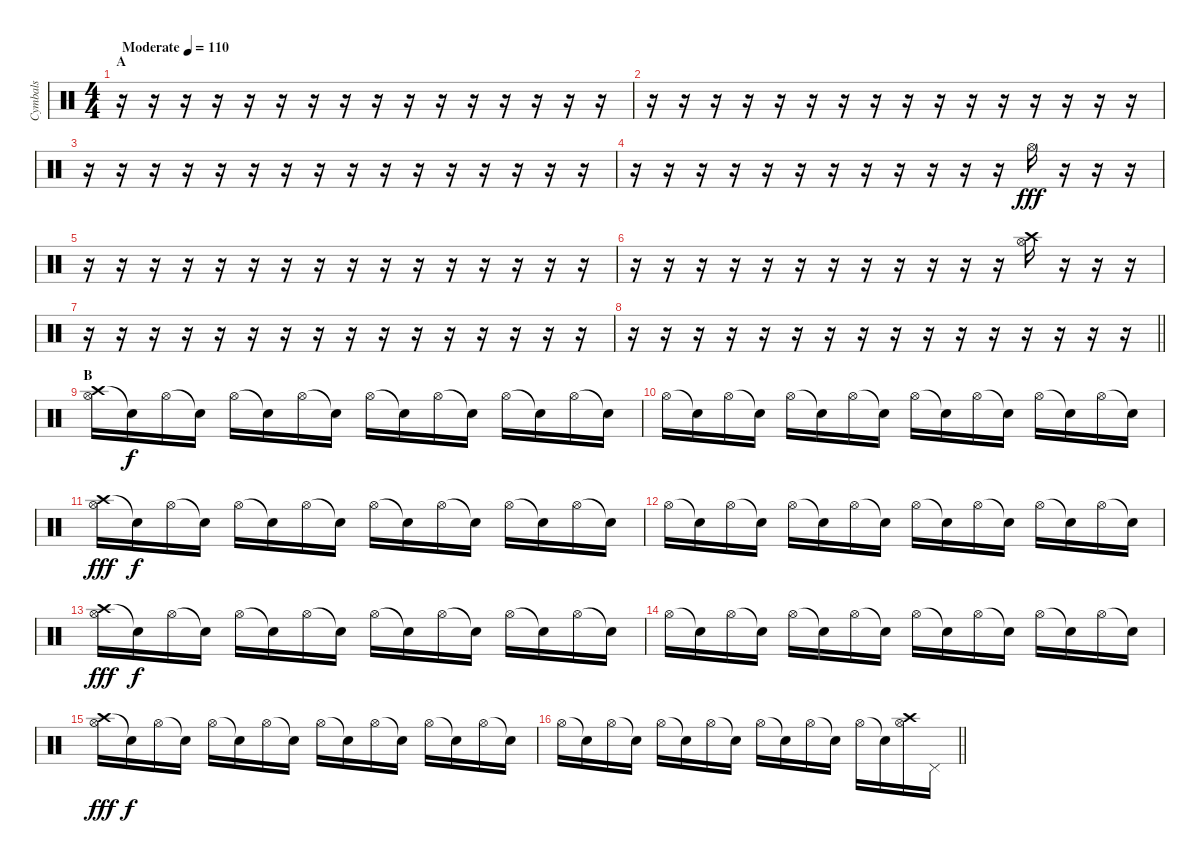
\track ("Cymbals" "Cymbals") {instrument percussion}
\staff {score}
\articulation defaults
\ts (4 4)
\section ("" "A")
\tempo (110 "Moderate")
\clef neutral
\ks c
r.16{dy fff} r.16 r.16 r.16 r.16 r.16 r.16 r.16 r.16 r.16 r.16 r.16 r.16 r.16 r.16 r.16 |
r.16 r.16 r.16 r.16 r.16 r.16 r.16 r.16 r.16 r.16 r.16 r.16 r.16 r.16 r.16 r.16 |
r.16 r.16 r.16 r.16 r.16 r.16 r.16 r.16 r.16 r.16 r.16 r.16 r.16 r.16 r.16 r.16 |
r.16 r.16 r.16 r.16 r.16 r.16 r.16 r.16 r.16 r.16 r.16 r.16 "Hi-Hat (open)".16 r.16 r.16 r.16 |
r.16 r.16 r.16 r.16 r.16 r.16 r.16 r.16 r.16 r.16 r.16 r.16 r.16 r.16 r.16 r.16 |
r.16 r.16 r.16 r.16 r.16 r.16 r.16 r.16 r.16 r.16 r.16 r.16 ("Crash high (hit)" "Hi-Hat (open)").16 r.16 r.16 r.16 |
r.16 r.16 r.16 r.16 r.16 r.16 r.16 r.16 r.16 r.16 r.16 r.16 r.16 r.16 r.16 r.16 |
\barLineRight lightlight
r.16 r.16 r.16 r.16 r.16 r.16 r.16 r.16 r.16 r.16 r.16 r.16 r.16 r.16 r.16 r.16 |
\section ("" "B")
("Crash high (hit)" "Hi-Hat (open)").16 "Snare (hit)"{t}.16{dy f} "Hi-Hat (open)".16 "Snare (hit)"{t}.16 "Hi-Hat (open)".16 "Snare (hit)"{t}.16 "Hi-Hat (open)".16 "Snare (hit)"{t}.16 "Hi-Hat (open)".16 "Snare (hit)"{t}.16 "Hi-Hat (open)".16 "Snare (hit)"{t}.16 "Hi-Hat (open)".16 "Snare (hit)"{t}.16 "Hi-Hat (open)".16 "Snare (hit)"{t}.16 |
"Hi-Hat (open)".16 "Snare (hit)"{t}.16 "Hi-Hat (open)".16 "Snare (hit)"{t}.16 "Hi-Hat (open)".16 "Snare (hit)"{t}.16 "Hi-Hat (open)".16 "Snare (hit)"{t}.16 "Hi-Hat (open)".16 "Snare (hit)"{t}.16 "Hi-Hat (open)".16 "Snare (hit)"{t}.16 "Hi-Hat (open)".16 "Snare (hit)"{t}.16 "Hi-Hat (open)".16 "Snare (hit)"{t}.16 |
("Crash high (hit)" "Hi-Hat (open)").16{dy fff} "Snare (hit)"{t}.16{dy f} "Hi-Hat (open)".16 "Snare (hit)"{t}.16 "Hi-Hat (open)".16 "Snare (hit)"{t}.16 "Hi-Hat (open)".16 "Snare (hit)"{t}.16 "Hi-Hat (open)".16 "Snare (hit)"{t}.16 "Hi-Hat (open)".16 "Snare (hit)"{t}.16 "Hi-Hat (open)".16 "Snare (hit)"{t}.16 "Hi-Hat (open)".16 "Snare (hit)"{t}.16 |
"Hi-Hat (open)".16 "Snare (hit)"{t}.16 "Hi-Hat (open)".16 "Snare (hit)"{t}.16 "Hi-Hat (open)".16 "Snare (hit)"{t}.16 "Hi-Hat (open)".16 "Snare (hit)"{t}.16 "Hi-Hat (open)".16 "Snare (hit)"{t}.16 "Hi-Hat (open)".16 "Snare (hit)"{t}.16 "Hi-Hat (open)".16 "Snare (hit)"{t}.16 "Hi-Hat (open)".16 "Snare (hit)"{t}.16 |
("Crash high (hit)" "Hi-Hat (open)").16{dy fff} "Snare (hit)"{t}.16{dy f} "Hi-Hat (open)".16 "Snare (hit)"{t}.16 "Hi-Hat (open)".16 "Snare (hit)"{t}.16 "Hi-Hat (open)".16 "Snare (hit)"{t}.16 "Hi-Hat (open)".16 "Snare (hit)"{t}.16 "Hi-Hat (open)".16 "Snare (hit)"{t}.16 "Hi-Hat (open)".16 "Snare (hit)"{t}.16 "Hi-Hat (open)".16 "Snare (hit)"{t}.16 |
"Hi-Hat (open)".16 "Snare (hit)"{t}.16 "Hi-Hat (open)".16 "Snare (hit)"{t}.16 "Hi-Hat (open)".16 "Snare (hit)"{t}.16 "Hi-Hat (open)".16 "Snare (hit)"{t}.16 "Hi-Hat (open)".16 "Snare (hit)"{t}.16 "Hi-Hat (open)".16 "Snare (hit)"{t}.16 "Hi-Hat (open)".16 "Snare (hit)"{t}.16 "Hi-Hat (open)".16 "Snare (hit)"{t}.16 |
("Crash high (hit)" "Hi-Hat (open)").16{dy fff} "Snare (hit)"{t}.16{dy f} "Hi-Hat (open)".16 "Snare (hit)"{t}.16 "Hi-Hat (open)".16 "Snare (hit)"{t}.16 "Hi-Hat (open)".16 "Snare (hit)"{t}.16 "Hi-Hat (open)".16 "Snare (hit)"{t}.16 "Hi-Hat (open)".16 "Snare (hit)"{t}.16 "Hi-Hat (open)".16 "Snare (hit)"{t}.16 "Hi-Hat (open)".16 "Snare (hit)"{t}.16 |
\barLineRight lightlight "Hi-Hat (open)".16 "Snare (hit)"{t}.16 "Hi-Hat (open)".16 "Snare (hit)"{t}.16 "Hi-Hat (open)".16 "Snare (hit)"{t}.16 "Hi-Hat (open)".16 "Snare (hit)"{t}.16 "Hi-Hat (open)".16 "Snare (hit)"{t}.16 "Hi-Hat (open)".16 "Snare (hit)"{t}.16 "Hi-Hat (open)".16 "Snare (hit)"{t}.16
("Crash high (hit)" "Hi-Hat (open)").16 "Pedal Hi-Hat (hit)".16
